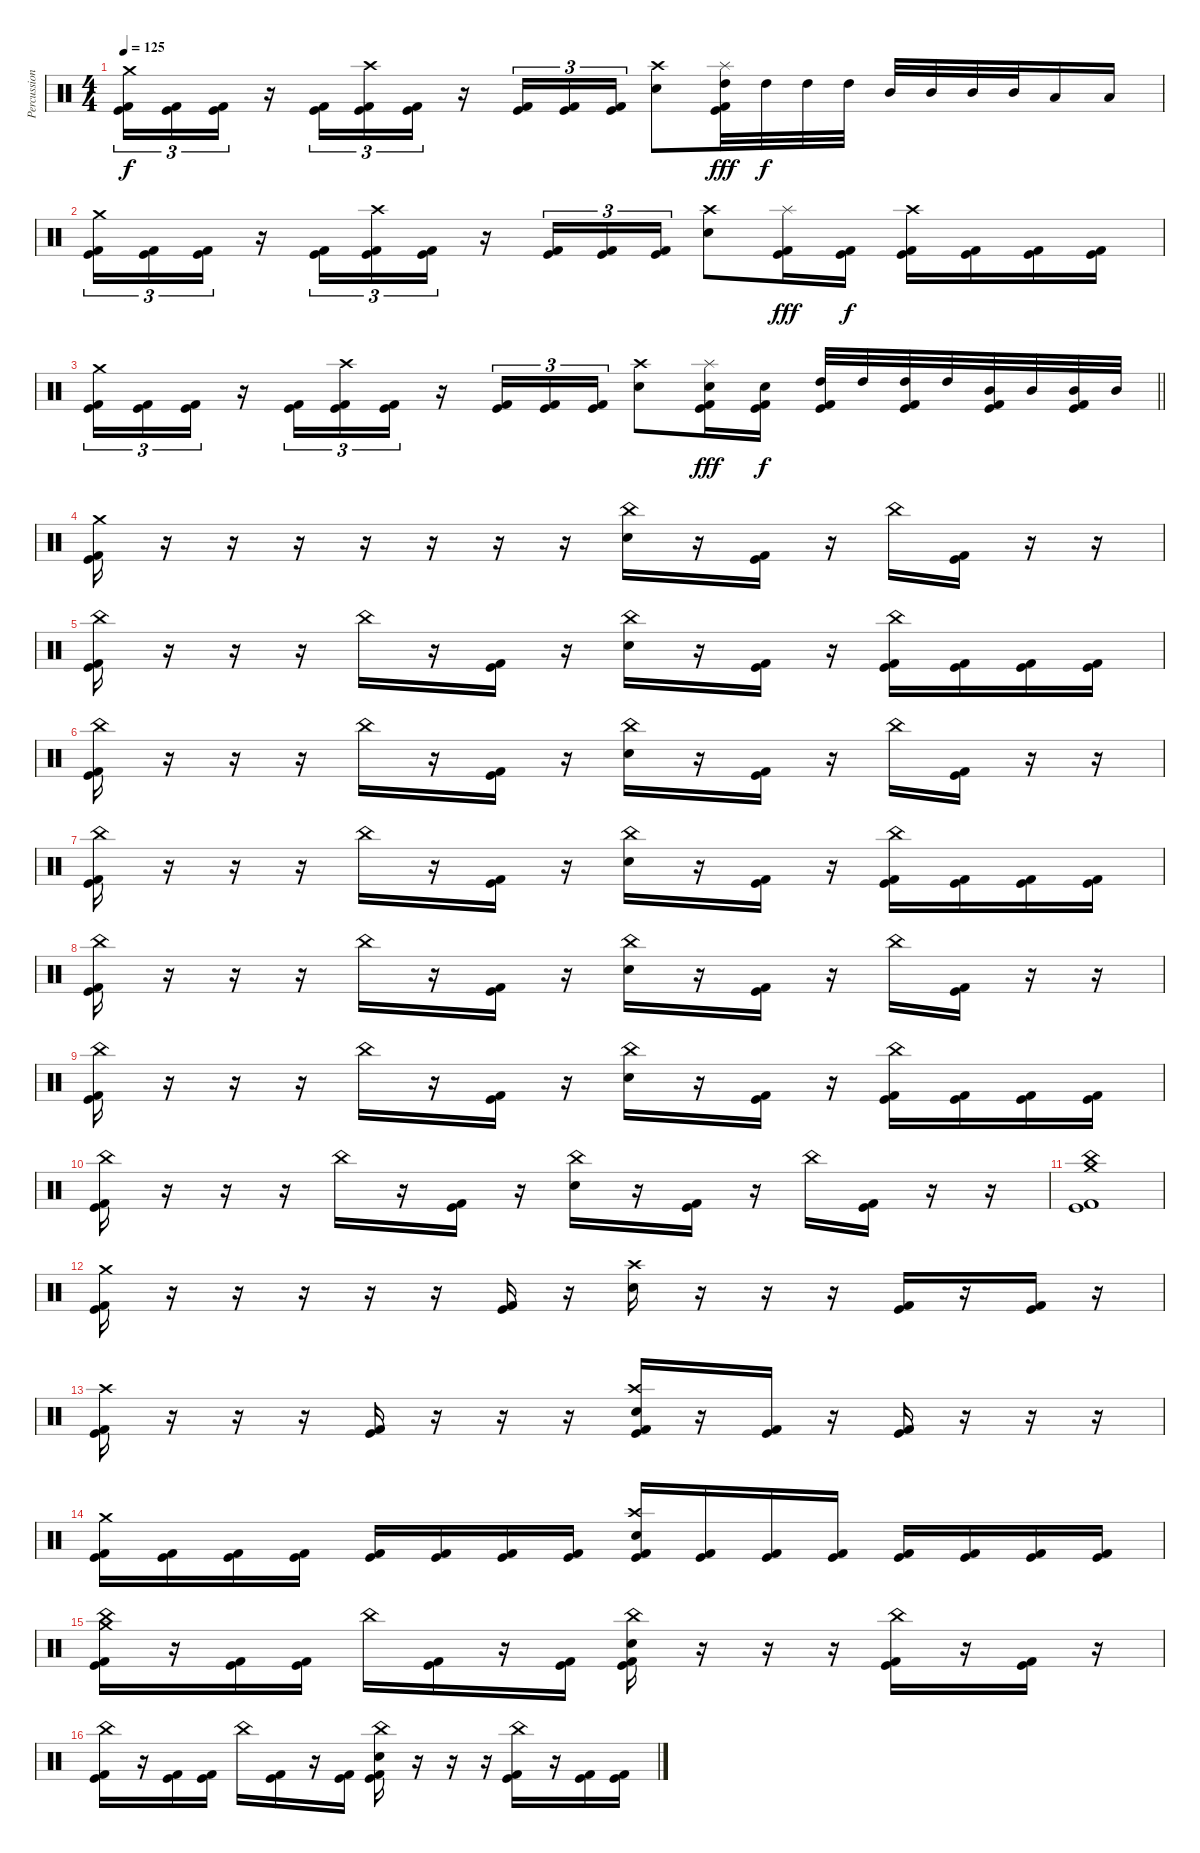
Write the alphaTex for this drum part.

\track ("Percussion" "Percussion") {instrument percussion}
\staff {score}
\articulation defaults
\ts (4 4)
\tempo 125
\clef neutral
\ks c
("Crash medium (hit)" "Kick (hit)" "Kick (hit) 2").16{tu (3 2) dy f} ("Kick (hit)" "Kick (hit) 2").16{tu (3 2)} ("Kick (hit)" "Kick (hit) 2").16{tu (3 2)} r.16 ("Kick (hit)" "Kick (hit) 2").16{tu (3 2)} ("Crash high (hit)" "Kick (hit)" "Kick (hit) 2").16{tu (3 2)} ("Kick (hit)" "Kick (hit) 2").16{tu (3 2)} r.16 ("Kick (hit)" "Kick (hit) 2").16{tu (3 2)} ("Kick (hit)" "Kick (hit) 2").16{tu (3 2)} ("Kick (hit)" "Kick (hit) 2").16{tu (3 2)} ("Crash high (hit)" "Snare (hit) 2").8 ("Splash (hit)" "High Tom (hit)" "Kick (hit)" "Kick (hit) 2").32{dy fff} "High Tom (hit)".32{dy f} "High Tom (hit)".32 "High Tom (hit)".32 "Mid Tom (hit)".32 "Mid Tom (hit)".32 "Mid Tom (hit)".32 "Mid Tom (hit)".32 "Low Tom (hit)".16 "Low Tom (hit)".16 |
("Crash medium (hit)" "Kick (hit)" "Kick (hit) 2").16{tu (3 2)} ("Kick (hit)" "Kick (hit) 2").16{tu (3 2)} ("Kick (hit)" "Kick (hit) 2").16{tu (3 2)} r.16 ("Kick (hit)" "Kick (hit) 2").16{tu (3 2)} ("Crash high (hit)" "Kick (hit)" "Kick (hit) 2").16{tu (3 2)} ("Kick (hit)" "Kick (hit) 2").16{tu (3 2)} r.16 ("Kick (hit)" "Kick (hit) 2").16{tu (3 2)} ("Kick (hit)" "Kick (hit) 2").16{tu (3 2)} ("Kick (hit)" "Kick (hit) 2").16{tu (3 2)} ("Crash high (hit)" "Snare (hit) 2").8 ("Splash (hit)" "Kick (hit)" "Kick (hit) 2").16{dy fff} ("Kick (hit)" "Kick (hit) 2").16{dy f} ("Crash high (hit)" "Kick (hit)" "Kick (hit) 2").16 ("Kick (hit)" "Kick (hit) 2").16 ("Kick (hit)" "Kick (hit) 2").16 ("Kick (hit)" "Kick (hit) 2").16 |
\barLineRight lightlight
("Crash medium (hit)" "Kick (hit)" "Kick (hit) 2").16{tu (3 2)} ("Kick (hit)" "Kick (hit) 2").16{tu (3 2)} ("Kick (hit)" "Kick (hit) 2").16{tu (3 2)} r.16 ("Kick (hit)" "Kick (hit) 2").16{tu (3 2)} ("Crash high (hit)" "Kick (hit)" "Kick (hit) 2").16{tu (3 2)} ("Kick (hit)" "Kick (hit) 2").16{tu (3 2)} r.16 ("Kick (hit)" "Kick (hit) 2").16{tu (3 2)} ("Kick (hit)" "Kick (hit) 2").16{tu (3 2)} ("Kick (hit)" "Kick (hit) 2").16{tu (3 2)} ("Crash high (hit)" "Snare (hit) 2").8 ("Splash (hit)" "Snare (hit) 2" "Kick (hit)" "Kick (hit) 2").16{dy fff} ("Snare (hit) 2" "Kick (hit)" "Kick (hit) 2").16{dy f} ("High Tom (hit)" "Kick (hit)" "Kick (hit) 2").32 "High Tom (hit)".32 ("High Tom (hit)" "Kick (hit)" "Kick (hit) 2").32 "High Tom (hit)".32 ("Mid Tom (hit)" "Kick (hit)" "Kick (hit) 2").32 "Mid Tom (hit)".32 ("Mid Tom (hit)" "Kick (hit)" "Kick (hit) 2").32 "Mid Tom (hit)".32 |
("Crash medium (hit)" "Kick (hit) 2" "Kick (hit)").16 r.16 r.16 r.16 r.16 r.16 r.16 r.16 ("China (hit)" "Snare (hit) 2").16 r.16 ("Kick (hit) 2" "Kick (hit)").16 r.16 "China (hit)".16 ("Kick (hit)" "Kick (hit) 2").16 r.16 r.16 |
("China (hit)" "Kick (hit) 2" "Kick (hit)").16 r.16 r.16 r.16 "China (hit)".16 r.16 ("Kick (hit) 2" "Kick (hit)").16 r.16 ("China (hit)" "Snare (hit) 2").16 r.16 ("Kick (hit) 2" "Kick (hit)").16 r.16 ("China (hit)" "Kick (hit)" "Kick (hit) 2").16 ("Kick (hit)" "Kick (hit) 2").16 ("Kick (hit)" "Kick (hit) 2").16 ("Kick (hit)" "Kick (hit) 2").16 |
("China (hit)" "Kick (hit) 2" "Kick (hit)").16 r.16 r.16 r.16 "China (hit)".16 r.16 ("Kick (hit) 2" "Kick (hit)").16 r.16 ("China (hit)" "Snare (hit) 2").16 r.16 ("Kick (hit) 2" "Kick (hit)").16 r.16 "China (hit)".16 ("Kick (hit)" "Kick (hit) 2").16 r.16 r.16 |
("China (hit)" "Kick (hit) 2" "Kick (hit)").16 r.16 r.16 r.16 "China (hit)".16 r.16 ("Kick (hit) 2" "Kick (hit)").16 r.16 ("China (hit)" "Snare (hit) 2").16 r.16 ("Kick (hit) 2" "Kick (hit)").16 r.16 ("China (hit)" "Kick (hit)" "Kick (hit) 2").16 ("Kick (hit)" "Kick (hit) 2").16 ("Kick (hit)" "Kick (hit) 2").16 ("Kick (hit)" "Kick (hit) 2").16 |
("China (hit)" "Kick (hit) 2" "Kick (hit)").16 r.16 r.16 r.16 "China (hit)".16 r.16 ("Kick (hit) 2" "Kick (hit)").16 r.16 ("China (hit)" "Snare (hit) 2").16 r.16 ("Kick (hit) 2" "Kick (hit)").16 r.16 "China (hit)".16 ("Kick (hit)" "Kick (hit) 2").16 r.16 r.16 |
("China (hit)" "Kick (hit) 2" "Kick (hit)").16 r.16 r.16 r.16 "China (hit)".16 r.16 ("Kick (hit) 2" "Kick (hit)").16 r.16 ("China (hit)" "Snare (hit) 2").16 r.16 ("Kick (hit) 2" "Kick (hit)").16 r.16 ("China (hit)" "Kick (hit)" "Kick (hit) 2").16 ("Kick (hit)" "Kick (hit) 2").16 ("Kick (hit)" "Kick (hit) 2").16 ("Kick (hit)" "Kick (hit) 2").16 |
("China (hit)" "Kick (hit) 2" "Kick (hit)").16 r.16 r.16 r.16 "China (hit)".16 r.16 ("Kick (hit) 2" "Kick (hit)").16 r.16 ("China (hit)" "Snare (hit) 2").16 r.16 ("Kick (hit) 2" "Kick (hit)").16 r.16 "China (hit)".16 ("Kick (hit)" "Kick (hit) 2").16 r.16 r.16 |
("China (hit)" "Crash medium (hit)" "Kick (hit) 2" "Kick (hit)").1 |
("Crash medium (hit)" "Kick (hit) 2" "Kick (hit)").16 r.16 r.16 r.16 r.16 r.16 ("Kick (hit) 2" "Kick (hit)").16 r.16 ("Crash high (hit)" "Snare (hit) 2").16 r.16 r.16 r.16 ("Kick (hit) 2" "Kick (hit)").16 r.16 ("Kick (hit)" "Kick (hit) 2").16 r.16 |
("Crash high (hit)" "Kick (hit)" "Kick (hit) 2").16 r.16 r.16 r.16 ("Kick (hit)" "Kick (hit) 2").16 r.16 r.16 r.16 ("Crash high (hit)" "Snare (hit) 2" "Kick (hit)" "Kick (hit) 2").16 r.16 ("Kick (hit)" "Kick (hit) 2").16 r.16 ("Kick (hit)" "Kick (hit) 2").16 r.16 r.16 r.16 |
("Crash medium (hit)" "Kick (hit) 2" "Kick (hit)").16 ("Kick (hit) 2" "Kick (hit)").16 ("Kick (hit) 2" "Kick (hit)").16 ("Kick (hit) 2" "Kick (hit)").16 ("Kick (hit) 2" "Kick (hit)").16 ("Kick (hit) 2" "Kick (hit)").16 ("Kick (hit) 2" "Kick (hit)").16 ("Kick (hit) 2" "Kick (hit)").16 ("Crash high (hit)" "Snare (hit) 2" "Kick (hit) 2" "Kick (hit)").16 ("Kick (hit) 2" "Kick (hit)").16 ("Kick (hit) 2" "Kick (hit)").16 ("Kick (hit) 2" "Kick (hit)").16 ("Kick (hit) 2" "Kick (hit)").16 ("Kick (hit) 2" "Kick (hit)").16 ("Kick (hit) 2" "Kick (hit)").16 ("Kick (hit) 2" "Kick (hit)").16 |
("China (hit)" "Crash medium (hit)" "Kick (hit) 2" "Kick (hit)").16 r.16 ("Kick (hit) 2" "Kick (hit)").16 ("Kick (hit) 2" "Kick (hit)").16 "China (hit)".16 ("Kick (hit) 2" "Kick (hit)").16 r.16 ("Kick (hit) 2" "Kick (hit)").16 ("China (hit)" "Snare (hit) 2" "Kick (hit) 2" "Kick (hit)").16 r.16 r.16 r.16 ("China (hit)" "Kick (hit)" "Kick (hit) 2").16 r.16 ("Kick (hit)" "Kick (hit) 2").16 r.16 |
("China (hit)" "Kick (hit) 2" "Kick (hit)").16 r.16 ("Kick (hit) 2" "Kick (hit)").16 ("Kick (hit) 2" "Kick (hit)").16 "China (hit)".16 ("Kick (hit) 2" "Kick (hit)").16 r.16 ("Kick (hit) 2" "Kick (hit)").16 ("China (hit)" "Snare (hit) 2" "Kick (hit) 2" "Kick (hit)").16 r.16 r.16 r.16 ("China (hit)" "Kick (hit)" "Kick (hit) 2").16 r.16 ("Kick (hit)" "Kick (hit) 2").16 ("Kick (hit)" "Kick (hit) 2").16
